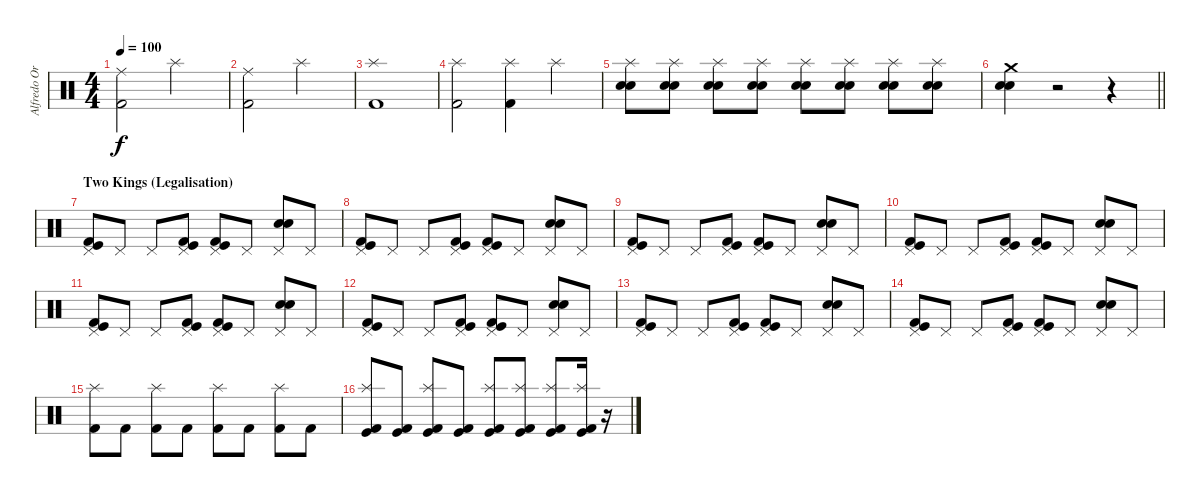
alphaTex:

\track ("Alfredo Ortiz (Drums)" "Alfredo Or") {instrument percussion}
\staff {score}
\articulation defaults
\ts (4 4)
\tempo 100
\clef neutral
\ks c
("Ride (middle)" "Kick (hit) 2").2{dy f} "Splash (hit)".2 |
("Ride (middle)" "Kick (hit) 2").2 "Splash (hit)".2 |
("Kick (hit) 2" "Splash (hit)").1 |
("Kick (hit) 2" "Splash (hit)").2 ("Splash (hit)" "Kick (hit) 2").4 "Splash (hit)".4{volume 5} |
("Snare (hit) 2" "Electric Snare (hit)" "Splash (hit)").8{volume 11} ("Snare (hit) 2" "Electric Snare (hit)" "Splash (hit)").8 ("Snare (hit) 2" "Electric Snare (hit)" "Splash (hit)").8 ("Snare (hit) 2" "Electric Snare (hit)" "Splash (hit)").8 ("Snare (hit) 2" "Electric Snare (hit)" "Splash (hit)").8 ("Snare (hit) 2" "Electric Snare (hit)" "Splash (hit)").8 ("Snare (hit) 2" "Electric Snare (hit)" "Splash (hit)").8 ("Snare (hit) 2" "Electric Snare (hit)" "Splash (hit)").8 |
\barLineRight lightlight
("Snare (hit) 2" "Electric Snare (hit)" "Crash medium (hit)").4 r.2 r.4 |
\section ("" "Two Kings (Legalisation)")
("Kick (hit) 2" "Kick (hit)" "Pedal Hi-Hat (hit)").8 "Pedal Hi-Hat (hit)".8 "Pedal Hi-Hat (hit)".8 ("Kick (hit) 2" "Kick (hit)" "Pedal Hi-Hat (hit)").8 ("Kick (hit) 2" "Kick (hit)" "Pedal Hi-Hat (hit)").8 "Pedal Hi-Hat (hit)".8 ("Snare (hit) 2" "Electric Snare (hit)" "Pedal Hi-Hat (hit)").8 "Pedal Hi-Hat (hit)".8 |
("Kick (hit) 2" "Kick (hit)" "Pedal Hi-Hat (hit)").8 "Pedal Hi-Hat (hit)".8 "Pedal Hi-Hat (hit)".8 ("Kick (hit) 2" "Kick (hit)" "Pedal Hi-Hat (hit)").8 ("Kick (hit) 2" "Kick (hit)" "Pedal Hi-Hat (hit)").8 "Pedal Hi-Hat (hit)".8 ("Snare (hit) 2" "Electric Snare (hit)" "Pedal Hi-Hat (hit)").8 "Pedal Hi-Hat (hit)".8 |
("Kick (hit) 2" "Kick (hit)" "Pedal Hi-Hat (hit)").8 "Pedal Hi-Hat (hit)".8 "Pedal Hi-Hat (hit)".8 ("Kick (hit) 2" "Kick (hit)" "Pedal Hi-Hat (hit)").8 ("Kick (hit) 2" "Kick (hit)" "Pedal Hi-Hat (hit)").8 "Pedal Hi-Hat (hit)".8 ("Snare (hit) 2" "Electric Snare (hit)" "Pedal Hi-Hat (hit)").8 "Pedal Hi-Hat (hit)".8 |
("Kick (hit) 2" "Kick (hit)" "Pedal Hi-Hat (hit)").8 "Pedal Hi-Hat (hit)".8 "Pedal Hi-Hat (hit)".8 ("Kick (hit) 2" "Kick (hit)" "Pedal Hi-Hat (hit)").8 ("Kick (hit) 2" "Kick (hit)" "Pedal Hi-Hat (hit)").8 "Pedal Hi-Hat (hit)".8 ("Snare (hit) 2" "Electric Snare (hit)" "Pedal Hi-Hat (hit)").8 "Pedal Hi-Hat (hit)".8 |
("Kick (hit) 2" "Kick (hit)" "Pedal Hi-Hat (hit)").8 "Pedal Hi-Hat (hit)".8 "Pedal Hi-Hat (hit)".8 ("Kick (hit) 2" "Kick (hit)" "Pedal Hi-Hat (hit)").8 ("Kick (hit) 2" "Kick (hit)" "Pedal Hi-Hat (hit)").8 "Pedal Hi-Hat (hit)".8 ("Snare (hit) 2" "Electric Snare (hit)" "Pedal Hi-Hat (hit)").8 "Pedal Hi-Hat (hit)".8 |
("Kick (hit) 2" "Kick (hit)" "Pedal Hi-Hat (hit)").8 "Pedal Hi-Hat (hit)".8 "Pedal Hi-Hat (hit)".8 ("Kick (hit) 2" "Kick (hit)" "Pedal Hi-Hat (hit)").8 ("Kick (hit) 2" "Kick (hit)" "Pedal Hi-Hat (hit)").8 "Pedal Hi-Hat (hit)".8 ("Snare (hit) 2" "Electric Snare (hit)" "Pedal Hi-Hat (hit)").8 "Pedal Hi-Hat (hit)".8 |
("Kick (hit) 2" "Kick (hit)" "Pedal Hi-Hat (hit)").8 "Pedal Hi-Hat (hit)".8 "Pedal Hi-Hat (hit)".8 ("Kick (hit) 2" "Kick (hit)" "Pedal Hi-Hat (hit)").8 ("Kick (hit) 2" "Kick (hit)" "Pedal Hi-Hat (hit)").8 "Pedal Hi-Hat (hit)".8 ("Snare (hit) 2" "Electric Snare (hit)" "Pedal Hi-Hat (hit)").8 "Pedal Hi-Hat (hit)".8 |
("Kick (hit) 2" "Kick (hit)" "Pedal Hi-Hat (hit)").8 "Pedal Hi-Hat (hit)".8 "Pedal Hi-Hat (hit)".8 ("Kick (hit) 2" "Kick (hit)" "Pedal Hi-Hat (hit)").8 ("Kick (hit) 2" "Kick (hit)" "Pedal Hi-Hat (hit)").8 "Pedal Hi-Hat (hit)".8 ("Snare (hit) 2" "Electric Snare (hit)" "Pedal Hi-Hat (hit)").8 "Pedal Hi-Hat (hit)".8 |
("Kick (hit) 2" "Splash (hit)").8 "Kick (hit) 2".8 ("Kick (hit) 2" "Splash (hit)").8 "Kick (hit) 2".8 ("Kick (hit) 2" "Splash (hit)").8 "Kick (hit) 2".8 ("Kick (hit) 2" "Splash (hit)").8 "Kick (hit) 2".8 |
("Kick (hit) 2" "Kick (hit)" "Splash (hit)").8 ("Kick (hit) 2" "Kick (hit)").8 ("Kick (hit) 2" "Kick (hit)" "Splash (hit)").8 ("Kick (hit) 2" "Kick (hit)").8 ("Kick (hit) 2" "Kick (hit)" "Splash (hit)").8 ("Kick (hit) 2" "Kick (hit)" "Splash (hit)").8 ("Kick (hit) 2" "Kick (hit)" "Splash (hit)").8 ("Kick (hit) 2" "Kick (hit)" "Splash (hit)").16 r.16{volume 8}
